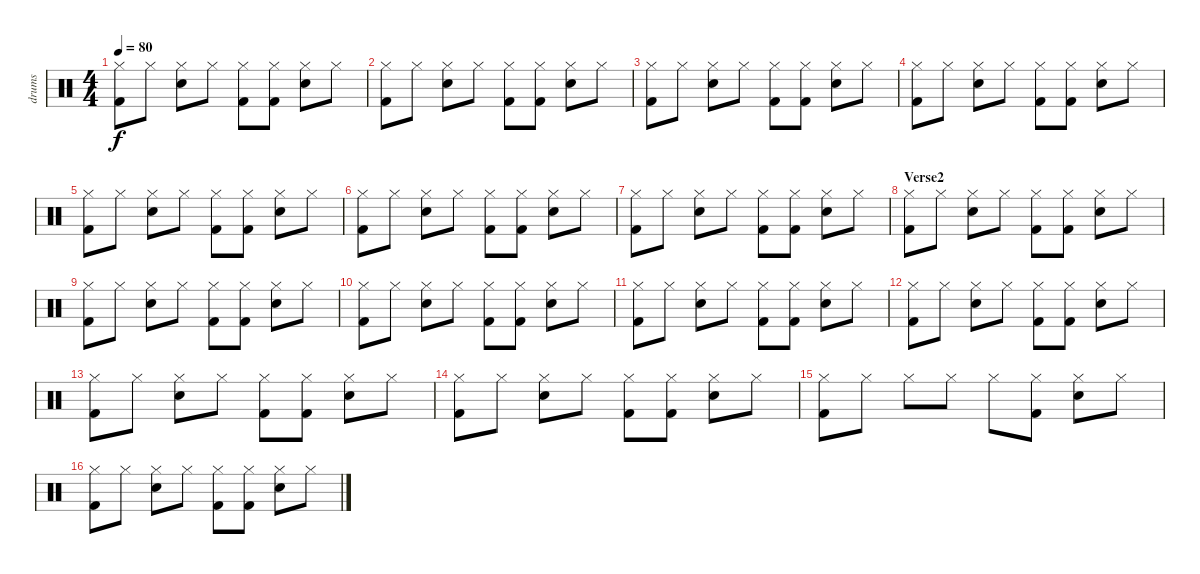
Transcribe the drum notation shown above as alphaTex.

\track ("drums" "drums") {instrument percussion}
\staff {score}
\articulation defaults
\ts (4 4)
\tempo 80
\clef neutral
\ks c
("Hi-Hat (closed)" "Kick (hit) 2").8{dy f} "Hi-Hat (closed)".8 ("Hi-Hat (closed)" "Electric Snare (hit)").8 "Hi-Hat (closed)".8 ("Hi-Hat (closed)" "Kick (hit) 2").8 ("Hi-Hat (closed)" "Kick (hit) 2").8 ("Hi-Hat (closed)" "Electric Snare (hit)").8 "Hi-Hat (closed)".8 |
("Hi-Hat (closed)" "Kick (hit) 2").8 "Hi-Hat (closed)".8 ("Hi-Hat (closed)" "Electric Snare (hit)").8 "Hi-Hat (closed)".8 ("Hi-Hat (closed)" "Kick (hit) 2").8 ("Hi-Hat (closed)" "Kick (hit) 2").8 ("Hi-Hat (closed)" "Electric Snare (hit)").8 "Hi-Hat (closed)".8 |
("Hi-Hat (closed)" "Kick (hit) 2").8 "Hi-Hat (closed)".8 ("Hi-Hat (closed)" "Electric Snare (hit)").8 "Hi-Hat (closed)".8 ("Hi-Hat (closed)" "Kick (hit) 2").8 ("Hi-Hat (closed)" "Kick (hit) 2").8 ("Hi-Hat (closed)" "Electric Snare (hit)").8 "Hi-Hat (closed)".8 |
("Hi-Hat (closed)" "Kick (hit) 2").8 "Hi-Hat (closed)".8 ("Hi-Hat (closed)" "Electric Snare (hit)").8 "Hi-Hat (closed)".8 ("Hi-Hat (closed)" "Kick (hit) 2").8 ("Hi-Hat (closed)" "Kick (hit) 2").8 ("Hi-Hat (closed)" "Electric Snare (hit)").8 "Hi-Hat (closed)".8 |
("Hi-Hat (closed)" "Kick (hit) 2").8 "Hi-Hat (closed)".8 ("Hi-Hat (closed)" "Electric Snare (hit)").8 "Hi-Hat (closed)".8 ("Hi-Hat (closed)" "Kick (hit) 2").8 ("Hi-Hat (closed)" "Kick (hit) 2").8 ("Hi-Hat (closed)" "Electric Snare (hit)").8 "Hi-Hat (closed)".8 |
("Hi-Hat (closed)" "Kick (hit) 2").8 "Hi-Hat (closed)".8 ("Hi-Hat (closed)" "Electric Snare (hit)").8 "Hi-Hat (closed)".8 ("Hi-Hat (closed)" "Kick (hit) 2").8 ("Hi-Hat (closed)" "Kick (hit) 2").8 ("Hi-Hat (closed)" "Electric Snare (hit)").8 "Hi-Hat (closed)".8 |
("Hi-Hat (closed)" "Kick (hit) 2").8 "Hi-Hat (closed)".8 ("Hi-Hat (closed)" "Electric Snare (hit)").8 "Hi-Hat (closed)".8 ("Hi-Hat (closed)" "Kick (hit) 2").8 ("Hi-Hat (closed)" "Kick (hit) 2").8 ("Hi-Hat (closed)" "Electric Snare (hit)").8 "Hi-Hat (closed)".8 |
\section ("" "Verse2")
("Hi-Hat (closed)" "Kick (hit) 2").8 "Hi-Hat (closed)".8 ("Hi-Hat (closed)" "Electric Snare (hit)").8 "Hi-Hat (closed)".8 ("Hi-Hat (closed)" "Kick (hit) 2").8 ("Hi-Hat (closed)" "Kick (hit) 2").8 ("Hi-Hat (closed)" "Electric Snare (hit)").8 "Hi-Hat (closed)".8 |
("Hi-Hat (closed)" "Kick (hit) 2").8 "Hi-Hat (closed)".8 ("Hi-Hat (closed)" "Electric Snare (hit)").8 "Hi-Hat (closed)".8 ("Hi-Hat (closed)" "Kick (hit) 2").8 ("Hi-Hat (closed)" "Kick (hit) 2").8 ("Hi-Hat (closed)" "Electric Snare (hit)").8 "Hi-Hat (closed)".8 |
("Hi-Hat (closed)" "Kick (hit) 2").8 "Hi-Hat (closed)".8 ("Hi-Hat (closed)" "Electric Snare (hit)").8 "Hi-Hat (closed)".8 ("Hi-Hat (closed)" "Kick (hit) 2").8 ("Hi-Hat (closed)" "Kick (hit) 2").8 ("Hi-Hat (closed)" "Electric Snare (hit)").8 "Hi-Hat (closed)".8 |
("Hi-Hat (closed)" "Kick (hit) 2").8 "Hi-Hat (closed)".8 ("Hi-Hat (closed)" "Electric Snare (hit)").8 "Hi-Hat (closed)".8 ("Hi-Hat (closed)" "Kick (hit) 2").8 ("Hi-Hat (closed)" "Kick (hit) 2").8 ("Hi-Hat (closed)" "Electric Snare (hit)").8 "Hi-Hat (closed)".8 |
("Hi-Hat (closed)" "Kick (hit) 2").8 "Hi-Hat (closed)".8 ("Hi-Hat (closed)" "Electric Snare (hit)").8 "Hi-Hat (closed)".8 ("Hi-Hat (closed)" "Kick (hit) 2").8 ("Hi-Hat (closed)" "Kick (hit) 2").8 ("Hi-Hat (closed)" "Electric Snare (hit)").8 "Hi-Hat (closed)".8 |
("Hi-Hat (closed)" "Kick (hit) 2").8 "Hi-Hat (closed)".8 ("Hi-Hat (closed)" "Electric Snare (hit)").8 "Hi-Hat (closed)".8 ("Hi-Hat (closed)" "Kick (hit) 2").8 ("Hi-Hat (closed)" "Kick (hit) 2").8 ("Hi-Hat (closed)" "Electric Snare (hit)").8 "Hi-Hat (closed)".8 |
("Hi-Hat (closed)" "Kick (hit) 2").8 "Hi-Hat (closed)".8 ("Hi-Hat (closed)" "Electric Snare (hit)").8 "Hi-Hat (closed)".8 ("Hi-Hat (closed)" "Kick (hit) 2").8 ("Hi-Hat (closed)" "Kick (hit) 2").8 ("Hi-Hat (closed)" "Electric Snare (hit)").8 "Hi-Hat (closed)".8 |
("Hi-Hat (closed)" "Kick (hit) 2").8 "Hi-Hat (closed)".8 "Hi-Hat (closed)".8 "Hi-Hat (closed)".8 "Hi-Hat (closed)".8 ("Hi-Hat (closed)" "Kick (hit) 2").8 ("Hi-Hat (closed)" "Electric Snare (hit)").8 "Hi-Hat (closed)".8 |
("Hi-Hat (closed)" "Kick (hit) 2").8 "Hi-Hat (closed)".8 ("Hi-Hat (closed)" "Electric Snare (hit)").8 "Hi-Hat (closed)".8 ("Hi-Hat (closed)" "Kick (hit) 2").8 ("Hi-Hat (closed)" "Kick (hit) 2").8 ("Hi-Hat (closed)" "Electric Snare (hit)").8 "Hi-Hat (closed)".8
